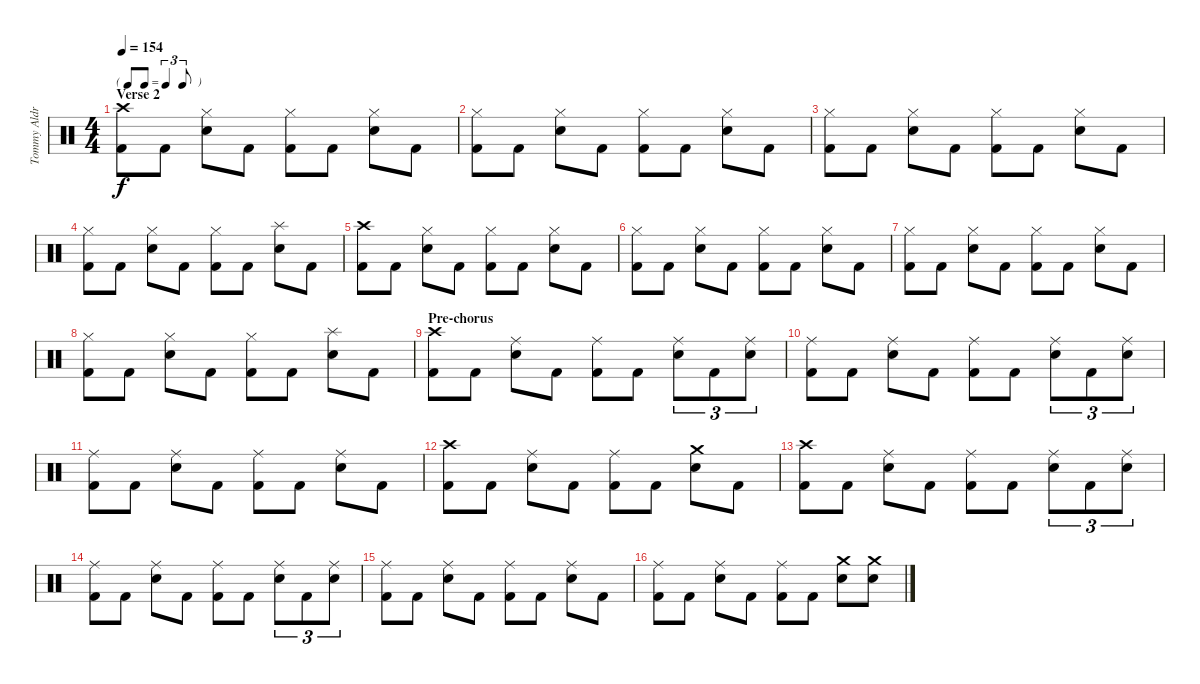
\track ("Tommy Aldridge (Drums)" "Tommy Aldr") {instrument percussion}
\staff {score}
\articulation defaults
\ts (4 4)
\tf triplet8th
\section ("" "Verse 2")
\tempo 154
\clef neutral
\ks c
("Crash high (hit)" "Kick (hit) 2").8{dy f} "Kick (hit) 2".8 ("Hi-Hat (closed)" "Electric Snare (hit)").8 "Kick (hit) 2".8 ("Hi-Hat (closed)" "Kick (hit) 2").8 "Kick (hit) 2".8 ("Hi-Hat (closed)" "Electric Snare (hit)").8 "Kick (hit) 2".8 |
("Hi-Hat (closed)" "Kick (hit) 2").8 "Kick (hit) 2".8 ("Hi-Hat (closed)" "Electric Snare (hit)").8 "Kick (hit) 2".8 ("Hi-Hat (closed)" "Kick (hit) 2").8 "Kick (hit) 2".8 ("Hi-Hat (closed)" "Electric Snare (hit)").8 "Kick (hit) 2".8 |
("Hi-Hat (closed)" "Kick (hit) 2").8 "Kick (hit) 2".8 ("Hi-Hat (closed)" "Electric Snare (hit)").8 "Kick (hit) 2".8 ("Hi-Hat (closed)" "Kick (hit) 2").8 "Kick (hit) 2".8 ("Hi-Hat (closed)" "Electric Snare (hit)").8 "Kick (hit) 2".8 |
("Hi-Hat (closed)" "Kick (hit) 2").8 "Kick (hit) 2".8 ("Hi-Hat (closed)" "Electric Snare (hit)").8 "Kick (hit) 2".8 ("Hi-Hat (closed)" "Kick (hit) 2").8 "Kick (hit) 2".8 ("Splash (hit)" "Electric Snare (hit)").8 "Kick (hit) 2".8 |
("Crash high (hit)" "Kick (hit) 2").8 "Kick (hit) 2".8 ("Hi-Hat (closed)" "Electric Snare (hit)").8 "Kick (hit) 2".8 ("Hi-Hat (closed)" "Kick (hit) 2").8 "Kick (hit) 2".8 ("Hi-Hat (closed)" "Electric Snare (hit)").8 "Kick (hit) 2".8 |
("Hi-Hat (closed)" "Kick (hit) 2").8 "Kick (hit) 2".8 ("Hi-Hat (closed)" "Electric Snare (hit)").8 "Kick (hit) 2".8 ("Hi-Hat (closed)" "Kick (hit) 2").8 "Kick (hit) 2".8 ("Hi-Hat (closed)" "Electric Snare (hit)").8 "Kick (hit) 2".8 |
("Hi-Hat (closed)" "Kick (hit) 2").8 "Kick (hit) 2".8 ("Hi-Hat (closed)" "Electric Snare (hit)").8 "Kick (hit) 2".8 ("Hi-Hat (closed)" "Kick (hit) 2").8 "Kick (hit) 2".8 ("Hi-Hat (closed)" "Electric Snare (hit)").8 "Kick (hit) 2".8 |
("Hi-Hat (closed)" "Kick (hit) 2").8 "Kick (hit) 2".8 ("Hi-Hat (closed)" "Electric Snare (hit)").8 "Kick (hit) 2".8 ("Hi-Hat (closed)" "Kick (hit) 2").8 "Kick (hit) 2".8 ("Splash (hit)" "Electric Snare (hit)").8 "Kick (hit) 2".8 |
\section ("" "Pre-chorus")
("Crash high (hit)" "Kick (hit) 2").8 "Kick (hit) 2".8 ("Ride (middle)" "Electric Snare (hit)").8 "Kick (hit) 2".8 ("Ride (middle)" "Kick (hit) 2").8 "Kick (hit) 2".8 ("Ride (middle)" "Electric Snare (hit)").8{tu (3 2)} "Kick (hit) 2".8{tu (3 2)} ("Ride (middle)" "Electric Snare (hit)").8{tu (3 2)} |
("Ride (middle)" "Kick (hit) 2").8 "Kick (hit) 2".8 ("Ride (middle)" "Electric Snare (hit)").8 "Kick (hit) 2".8 ("Ride (middle)" "Kick (hit) 2").8 "Kick (hit) 2".8 ("Ride (middle)" "Electric Snare (hit)").8{tu (3 2)} "Kick (hit) 2".8{tu (3 2)} ("Ride (middle)" "Electric Snare (hit)").8{tu (3 2)} |
("Ride (middle)" "Kick (hit) 2").8 "Kick (hit) 2".8 ("Ride (middle)" "Electric Snare (hit)").8 "Kick (hit) 2".8 ("Ride (middle)" "Kick (hit) 2").8 "Kick (hit) 2".8 ("Ride (middle)" "Electric Snare (hit)").8 "Kick (hit) 2".8 |
("Crash high (hit)" "Kick (hit) 2").8 "Kick (hit) 2".8 ("Ride (middle)" "Electric Snare (hit)").8 "Kick (hit) 2".8 ("Ride (middle)" "Kick (hit) 2").8 "Kick (hit) 2".8 ("Crash medium (hit)" "Electric Snare (hit)").8 "Kick (hit) 2".8 |
("Crash high (hit)" "Kick (hit) 2").8 "Kick (hit) 2".8 ("Ride (middle)" "Electric Snare (hit)").8 "Kick (hit) 2".8 ("Ride (middle)" "Kick (hit) 2").8 "Kick (hit) 2".8 ("Ride (middle)" "Electric Snare (hit)").8{tu (3 2)} "Kick (hit) 2".8{tu (3 2)} ("Ride (middle)" "Electric Snare (hit)").8{tu (3 2)} |
("Ride (middle)" "Kick (hit) 2").8 "Kick (hit) 2".8 ("Ride (middle)" "Electric Snare (hit)").8 "Kick (hit) 2".8 ("Ride (middle)" "Kick (hit) 2").8 "Kick (hit) 2".8 ("Ride (middle)" "Electric Snare (hit)").8{tu (3 2)} "Kick (hit) 2".8{tu (3 2)} ("Ride (middle)" "Electric Snare (hit)").8{tu (3 2)} |
("Ride (middle)" "Kick (hit) 2").8 "Kick (hit) 2".8 ("Ride (middle)" "Electric Snare (hit)").8 "Kick (hit) 2".8 ("Ride (middle)" "Kick (hit) 2").8 "Kick (hit) 2".8 ("Ride (middle)" "Electric Snare (hit)").8 "Kick (hit) 2".8 |
("Ride (middle)" "Kick (hit) 2").8 "Kick (hit) 2".8 ("Ride (middle)" "Electric Snare (hit)").8 "Kick (hit) 2".8 ("Ride (middle)" "Kick (hit) 2").8 "Kick (hit) 2".8 ("Crash medium (hit)" "Electric Snare (hit)").8 ("Crash medium (hit)" "Electric Snare (hit)").8
